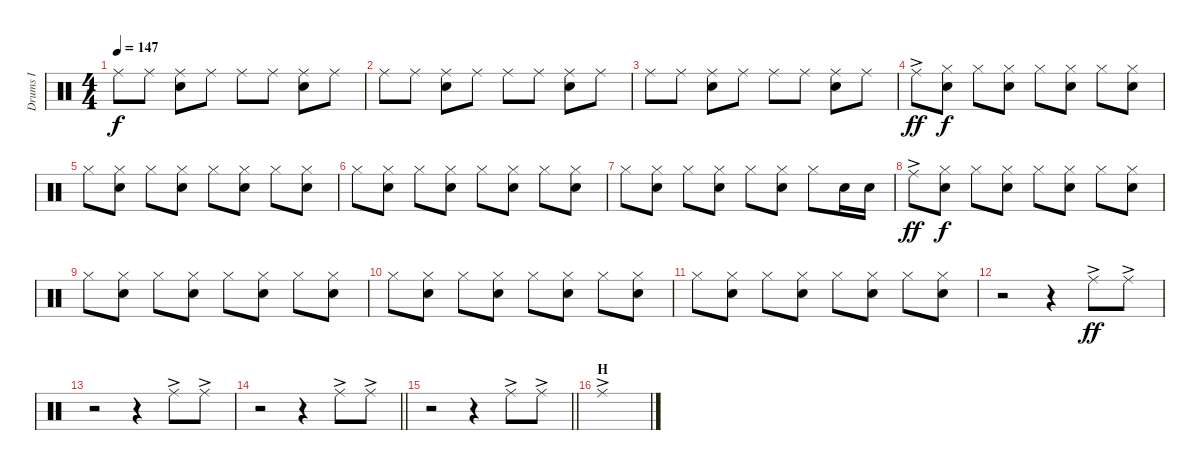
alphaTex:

\track ("Drums I" "Drums I") {instrument percussion}
\staff {score}
\articulation defaults
\ts (4 4)
\tempo 147
\clef neutral
\ks c "Ride (middle)".8{dy f} "Ride (middle)".8
("Ride (middle)" "Snare (hit) 2").8 "Ride (middle)".8 "Ride (middle)".8 "Ride (middle)".8 ("Ride (middle)" "Snare (hit) 2").8 "Ride (middle)".8 |
"Ride (middle)".8 "Ride (middle)".8 ("Ride (middle)" "Snare (hit) 2").8 "Ride (middle)".8 "Ride (middle)".8 "Ride (middle)".8 ("Ride (middle)" "Snare (hit) 2").8 "Ride (middle)".8 |
"Ride (middle)".8 "Ride (middle)".8 ("Ride (middle)" "Snare (hit) 2").8 "Ride (middle)".8 "Ride (middle)".8 "Ride (middle)".8 ("Ride (middle)" "Snare (hit) 2").8 "Ride (middle)".8 |
"Ride (middle)"{ac}.8{dy ff} ("Hi-Hat (closed)" "Snare (hit) 2").8{dy f} "Hi-Hat (closed)".8 ("Hi-Hat (closed)" "Snare (hit) 2").8 "Hi-Hat (closed)".8 ("Hi-Hat (closed)" "Snare (hit) 2").8 "Hi-Hat (closed)".8 ("Hi-Hat (closed)" "Snare (hit) 2").8 |
"Hi-Hat (closed)".8 ("Hi-Hat (closed)" "Snare (hit) 2").8 "Hi-Hat (closed)".8 ("Hi-Hat (closed)" "Snare (hit) 2").8 "Hi-Hat (closed)".8 ("Hi-Hat (closed)" "Snare (hit) 2").8 "Hi-Hat (closed)".8 ("Hi-Hat (closed)" "Snare (hit) 2").8 |
"Hi-Hat (closed)".8 ("Hi-Hat (closed)" "Snare (hit) 2").8 "Hi-Hat (closed)".8 ("Hi-Hat (closed)" "Snare (hit) 2").8 "Hi-Hat (closed)".8 ("Hi-Hat (closed)" "Snare (hit) 2").8 "Hi-Hat (closed)".8 ("Hi-Hat (closed)" "Snare (hit) 2").8 |
"Hi-Hat (closed)".8 ("Hi-Hat (closed)" "Snare (hit) 2").8 "Hi-Hat (closed)".8 ("Hi-Hat (closed)" "Snare (hit) 2").8 "Hi-Hat (closed)".8 ("Hi-Hat (closed)" "Snare (hit) 2").8 "Hi-Hat (closed)".8 "Snare (hit) 2".16 "Snare (hit) 2".16 |
"Ride (middle)"{ac}.8{dy ff} ("Hi-Hat (closed)" "Snare (hit) 2").8{dy f} "Hi-Hat (closed)".8 ("Hi-Hat (closed)" "Snare (hit) 2").8 "Hi-Hat (closed)".8 ("Hi-Hat (closed)" "Snare (hit) 2").8 "Hi-Hat (closed)".8 ("Hi-Hat (closed)" "Snare (hit) 2").8 |
"Hi-Hat (closed)".8 ("Hi-Hat (closed)" "Snare (hit) 2").8 "Hi-Hat (closed)".8 ("Hi-Hat (closed)" "Snare (hit) 2").8 "Hi-Hat (closed)".8 ("Hi-Hat (closed)" "Snare (hit) 2").8 "Hi-Hat (closed)".8 ("Hi-Hat (closed)" "Snare (hit) 2").8 |
"Hi-Hat (closed)".8 ("Hi-Hat (closed)" "Snare (hit) 2").8 "Hi-Hat (closed)".8 ("Hi-Hat (closed)" "Snare (hit) 2").8 "Hi-Hat (closed)".8 ("Hi-Hat (closed)" "Snare (hit) 2").8 "Hi-Hat (closed)".8 ("Hi-Hat (closed)" "Snare (hit) 2").8 |
"Hi-Hat (closed)".8 ("Hi-Hat (closed)" "Snare (hit) 2").8 "Hi-Hat (closed)".8 ("Hi-Hat (closed)" "Snare (hit) 2").8 "Hi-Hat (closed)".8 ("Hi-Hat (closed)" "Snare (hit) 2").8 "Hi-Hat (closed)".8 ("Hi-Hat (closed)" "Snare (hit) 2").8 |
r.2 r.4 "Ride (middle)"{ac}.8{dy ff} "Ride (middle)"{ac}.8 |
r.2 r.4 "Ride (middle)"{ac}.8 "Ride (middle)"{ac}.8 |
\barLineRight lightlight
r.2 r.4 "Ride (middle)"{ac}.8 "Ride (middle)"{ac}.8 |
\section ("" "")
\barLineRight lightlight
r.2 r.4 "Ride (middle)"{ac}.8 "Ride (middle)"{ac}.8 |
\section ("" "H")
"Ride (middle)"{ac}.1
